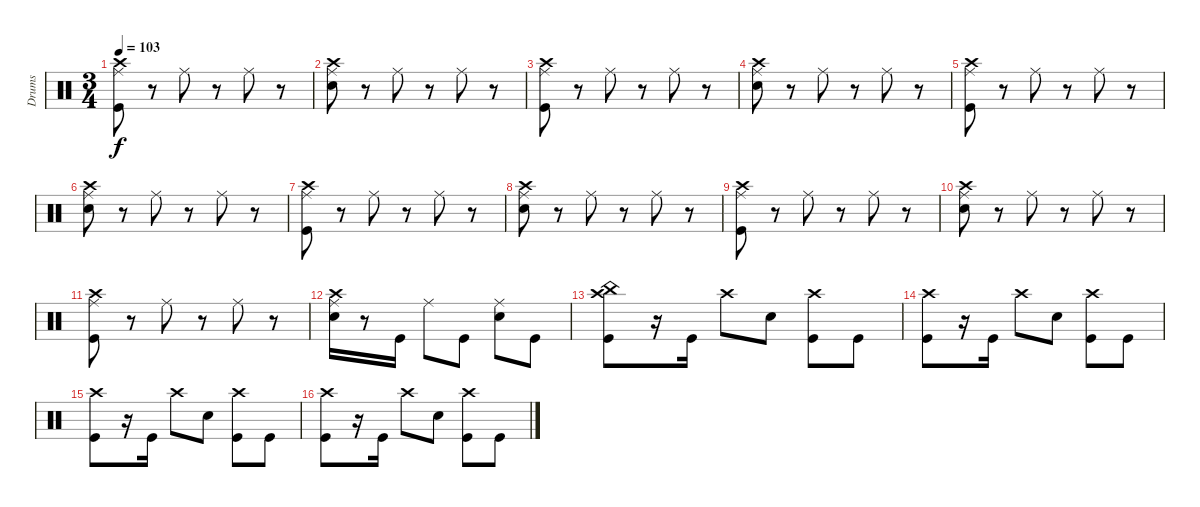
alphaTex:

\track ("Drums" "Drums") {instrument percussion}
\staff {score}
\articulation defaults
\ts (3 4)
\tempo 103
\clef neutral
\ks c
("Crash high (hit)" "Ride (middle)" "Kick (hit)").8{dy f} r.8 "Ride (middle)".8 r.8 "Ride (middle)".8 r.8 |
("Crash high (hit)" "Ride (middle)" "Snare (hit) 2").8 r.8 "Ride (middle)".8 r.8 "Ride (middle)".8 r.8 |
("Crash high (hit)" "Ride (middle)" "Kick (hit)").8 r.8 "Ride (middle)".8 r.8 "Ride (middle)".8 r.8 |
("Crash high (hit)" "Ride (middle)" "Snare (hit) 2").8 r.8 "Ride (middle)".8 r.8 "Ride (middle)".8 r.8 |
("Crash high (hit)" "Ride (middle)" "Kick (hit)").8 r.8 "Ride (middle)".8 r.8 "Ride (middle)".8 r.8 |
("Crash high (hit)" "Ride (middle)" "Snare (hit) 2").8 r.8 "Ride (middle)".8 r.8 "Ride (middle)".8 r.8 |
("Crash high (hit)" "Ride (middle)" "Kick (hit)").8 r.8 "Ride (middle)".8 r.8 "Ride (middle)".8 r.8 |
("Crash high (hit)" "Ride (middle)" "Snare (hit) 2").8 r.8 "Ride (middle)".8 r.8 "Ride (middle)".8 r.8 |
("Crash high (hit)" "Ride (middle)" "Kick (hit)").8 r.8 "Ride (middle)".8 r.8 "Ride (middle)".8 r.8 |
("Crash high (hit)" "Ride (middle)" "Snare (hit) 2").8 r.8 "Ride (middle)".8 r.8 "Ride (middle)".8 r.8 |
("Crash high (hit)" "Ride (middle)" "Kick (hit)").8 r.8 "Ride (middle)".8 r.8 "Ride (middle)".8 r.8 |
("Crash high (hit)" "Ride (middle)" "Snare (hit) 2").16 r.8 "Kick (hit)".16 "Ride (middle)".8 "Kick (hit)".8 ("Ride (middle)" "Snare (hit) 2").8 "Kick (hit)".8 |
("Crash high (hit)" "China (hit)" "Kick (hit)").8 r.16 "Kick (hit)".16 "Crash high (hit)".8 "Snare (hit) 2".8 ("Crash high (hit)" "Kick (hit)").8 "Kick (hit)".8 |
("Crash high (hit)" "Kick (hit)").8 r.16 "Kick (hit)".16 "Crash high (hit)".8 "Snare (hit) 2".8 ("Crash high (hit)" "Kick (hit)").8 "Kick (hit)".8 |
("Crash high (hit)" "Kick (hit)").8 r.16 "Kick (hit)".16 "Crash high (hit)".8 "Snare (hit) 2".8 ("Crash high (hit)" "Kick (hit)").8 "Kick (hit)".8 |
("Crash high (hit)" "Kick (hit)").8 r.16 "Kick (hit)".16 "Crash high (hit)".8 "Snare (hit) 2".8 ("Crash high (hit)" "Kick (hit)").8 "Kick (hit)".8
